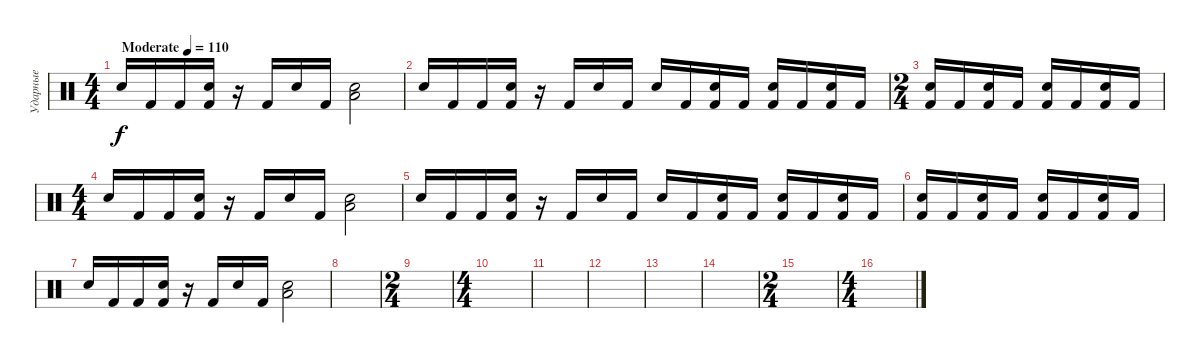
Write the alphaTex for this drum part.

\track ("Ударные" "Ударные") {instrument percussion}
\staff {score}
\articulation defaults
\ts (4 4)
\tempo (110 "Moderate")
\clef neutral
\ks c "Electric Snare (hit)".16{dy f} "Kick (hit) 2".16 "Kick (hit) 2".16
("Electric Snare (hit)" "Kick (hit) 2").16 r.16 "Kick (hit) 2".16 "Electric Snare (hit)".16 "Kick (hit) 2".16 ("Electric Snare (hit)" "Low Floor Tom (hit)").2 |
"Electric Snare (hit)".16 "Kick (hit) 2".16 "Kick (hit) 2".16 ("Electric Snare (hit)" "Kick (hit) 2").16 r.16 "Kick (hit) 2".16 "Electric Snare (hit)".16 "Kick (hit) 2".16 "Electric Snare (hit)".16 "Kick (hit) 2".16 ("Electric Snare (hit)" "Kick (hit) 2").16 "Kick (hit) 2".16 ("Electric Snare (hit)" "Kick (hit) 2").16 "Kick (hit) 2".16 ("Electric Snare (hit)" "Kick (hit) 2").16 "Kick (hit) 2".16 |
\ts (2 4)
("Electric Snare (hit)" "Kick (hit) 2").16 "Kick (hit) 2".16 ("Electric Snare (hit)" "Kick (hit) 2").16 "Kick (hit) 2".16 ("Electric Snare (hit)" "Kick (hit) 2").16 "Kick (hit) 2".16 ("Electric Snare (hit)" "Kick (hit) 2").16 "Kick (hit) 2".16 |
\ts (4 4)
"Electric Snare (hit)".16 "Kick (hit) 2".16 "Kick (hit) 2".16 ("Electric Snare (hit)" "Kick (hit) 2").16 r.16 "Kick (hit) 2".16 "Electric Snare (hit)".16 "Kick (hit) 2".16 ("Electric Snare (hit)" "Low Floor Tom (hit)").2 |
"Electric Snare (hit)".16 "Kick (hit) 2".16 "Kick (hit) 2".16 ("Electric Snare (hit)" "Kick (hit) 2").16 r.16 "Kick (hit) 2".16 "Electric Snare (hit)".16 "Kick (hit) 2".16 "Electric Snare (hit)".16 "Kick (hit) 2".16 ("Electric Snare (hit)" "Kick (hit) 2").16 "Kick (hit) 2".16 ("Electric Snare (hit)" "Kick (hit) 2").16 "Kick (hit) 2".16 ("Electric Snare (hit)" "Kick (hit) 2").16 "Kick (hit) 2".16 |
("Electric Snare (hit)" "Kick (hit) 2").16 "Kick (hit) 2".16 ("Electric Snare (hit)" "Kick (hit) 2").16 "Kick (hit) 2".16 ("Electric Snare (hit)" "Kick (hit) 2").16 "Kick (hit) 2".16 ("Electric Snare (hit)" "Kick (hit) 2").16 "Kick (hit) 2".16 |
"Electric Snare (hit)".16 "Kick (hit) 2".16 "Kick (hit) 2".16 ("Electric Snare (hit)" "Kick (hit) 2").16 r.16 "Kick (hit) 2".16 "Electric Snare (hit)".16 "Kick (hit) 2".16 ("Electric Snare (hit)" "Low Floor Tom (hit)").2 |
|
\ts (2 4)
|
\ts (4 4)
|
|
|
|
|
\ts (2 4)
|
\ts (4 4)
